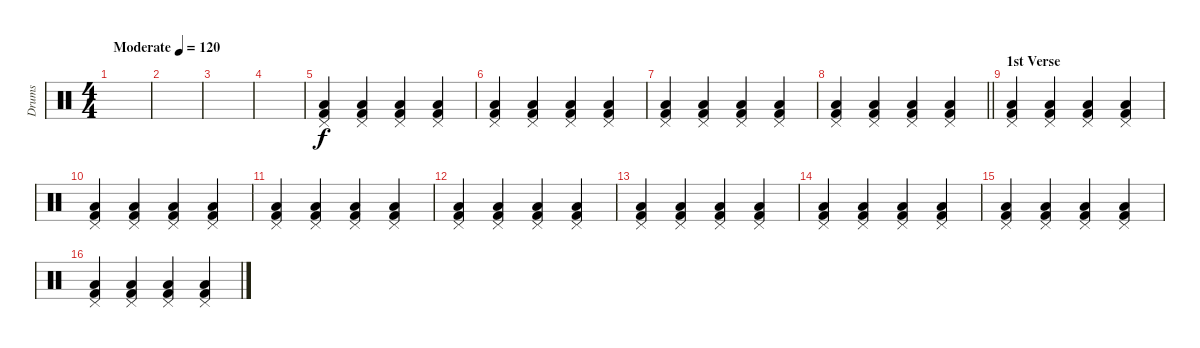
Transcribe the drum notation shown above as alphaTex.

\track ("Drums" "Drums") {instrument percussion}
\staff {score}
\articulation defaults
\ts (4 4)
\tempo (120 "Moderate")
\clef neutral
\ks c
|
|
|
|
("Pedal Hi-Hat (hit)" "Low Floor Tom (hit)" "Kick (hit) 2").4 ("Pedal Hi-Hat (hit)" "Low Floor Tom (hit)" "Kick (hit) 2").4 ("Pedal Hi-Hat (hit)" "Low Floor Tom (hit)" "Kick (hit) 2").4 ("Pedal Hi-Hat (hit)" "Low Floor Tom (hit)" "Kick (hit) 2").4 |
("Pedal Hi-Hat (hit)" "Low Floor Tom (hit)" "Kick (hit) 2").4 ("Pedal Hi-Hat (hit)" "Low Floor Tom (hit)" "Kick (hit) 2").4 ("Pedal Hi-Hat (hit)" "Low Floor Tom (hit)" "Kick (hit) 2").4 ("Pedal Hi-Hat (hit)" "Low Floor Tom (hit)" "Kick (hit) 2").4 |
("Pedal Hi-Hat (hit)" "Low Floor Tom (hit)" "Kick (hit) 2").4 ("Pedal Hi-Hat (hit)" "Low Floor Tom (hit)" "Kick (hit) 2").4 ("Pedal Hi-Hat (hit)" "Low Floor Tom (hit)" "Kick (hit) 2").4 ("Pedal Hi-Hat (hit)" "Low Floor Tom (hit)" "Kick (hit) 2").4 |
\barLineRight lightlight
("Pedal Hi-Hat (hit)" "Low Floor Tom (hit)" "Kick (hit) 2").4 ("Pedal Hi-Hat (hit)" "Low Floor Tom (hit)" "Kick (hit) 2").4 ("Pedal Hi-Hat (hit)" "Low Floor Tom (hit)" "Kick (hit) 2").4 ("Pedal Hi-Hat (hit)" "Low Floor Tom (hit)" "Kick (hit) 2").4 |
\section ("" "1st Verse")
("Pedal Hi-Hat (hit)" "Low Floor Tom (hit)" "Kick (hit) 2").4 ("Pedal Hi-Hat (hit)" "Low Floor Tom (hit)" "Kick (hit) 2").4 ("Pedal Hi-Hat (hit)" "Low Floor Tom (hit)" "Kick (hit) 2").4 ("Pedal Hi-Hat (hit)" "Low Floor Tom (hit)" "Kick (hit) 2").4 |
("Pedal Hi-Hat (hit)" "Low Floor Tom (hit)" "Kick (hit) 2").4 ("Pedal Hi-Hat (hit)" "Low Floor Tom (hit)" "Kick (hit) 2").4 ("Pedal Hi-Hat (hit)" "Low Floor Tom (hit)" "Kick (hit) 2").4 ("Pedal Hi-Hat (hit)" "Low Floor Tom (hit)" "Kick (hit) 2").4 |
("Pedal Hi-Hat (hit)" "Low Floor Tom (hit)" "Kick (hit) 2").4 ("Pedal Hi-Hat (hit)" "Low Floor Tom (hit)" "Kick (hit) 2").4 ("Pedal Hi-Hat (hit)" "Low Floor Tom (hit)" "Kick (hit) 2").4 ("Pedal Hi-Hat (hit)" "Low Floor Tom (hit)" "Kick (hit) 2").4 |
("Pedal Hi-Hat (hit)" "Low Floor Tom (hit)" "Kick (hit) 2").4 ("Pedal Hi-Hat (hit)" "Low Floor Tom (hit)" "Kick (hit) 2").4 ("Pedal Hi-Hat (hit)" "Low Floor Tom (hit)" "Kick (hit) 2").4 ("Pedal Hi-Hat (hit)" "Low Floor Tom (hit)" "Kick (hit) 2").4 |
("Pedal Hi-Hat (hit)" "Low Floor Tom (hit)" "Kick (hit) 2").4 ("Pedal Hi-Hat (hit)" "Low Floor Tom (hit)" "Kick (hit) 2").4 ("Pedal Hi-Hat (hit)" "Low Floor Tom (hit)" "Kick (hit) 2").4 ("Pedal Hi-Hat (hit)" "Low Floor Tom (hit)" "Kick (hit) 2").4 |
("Pedal Hi-Hat (hit)" "Low Floor Tom (hit)" "Kick (hit) 2").4 ("Pedal Hi-Hat (hit)" "Low Floor Tom (hit)" "Kick (hit) 2").4 ("Pedal Hi-Hat (hit)" "Low Floor Tom (hit)" "Kick (hit) 2").4 ("Pedal Hi-Hat (hit)" "Low Floor Tom (hit)" "Kick (hit) 2").4 |
("Pedal Hi-Hat (hit)" "Low Floor Tom (hit)" "Kick (hit) 2").4 ("Pedal Hi-Hat (hit)" "Low Floor Tom (hit)" "Kick (hit) 2").4 ("Pedal Hi-Hat (hit)" "Low Floor Tom (hit)" "Kick (hit) 2").4 ("Pedal Hi-Hat (hit)" "Low Floor Tom (hit)" "Kick (hit) 2").4 |
("Pedal Hi-Hat (hit)" "Low Floor Tom (hit)" "Kick (hit) 2").4 ("Pedal Hi-Hat (hit)" "Low Floor Tom (hit)" "Kick (hit) 2").4 ("Pedal Hi-Hat (hit)" "Low Floor Tom (hit)" "Kick (hit) 2").4 ("Pedal Hi-Hat (hit)" "Low Floor Tom (hit)" "Kick (hit) 2").4
